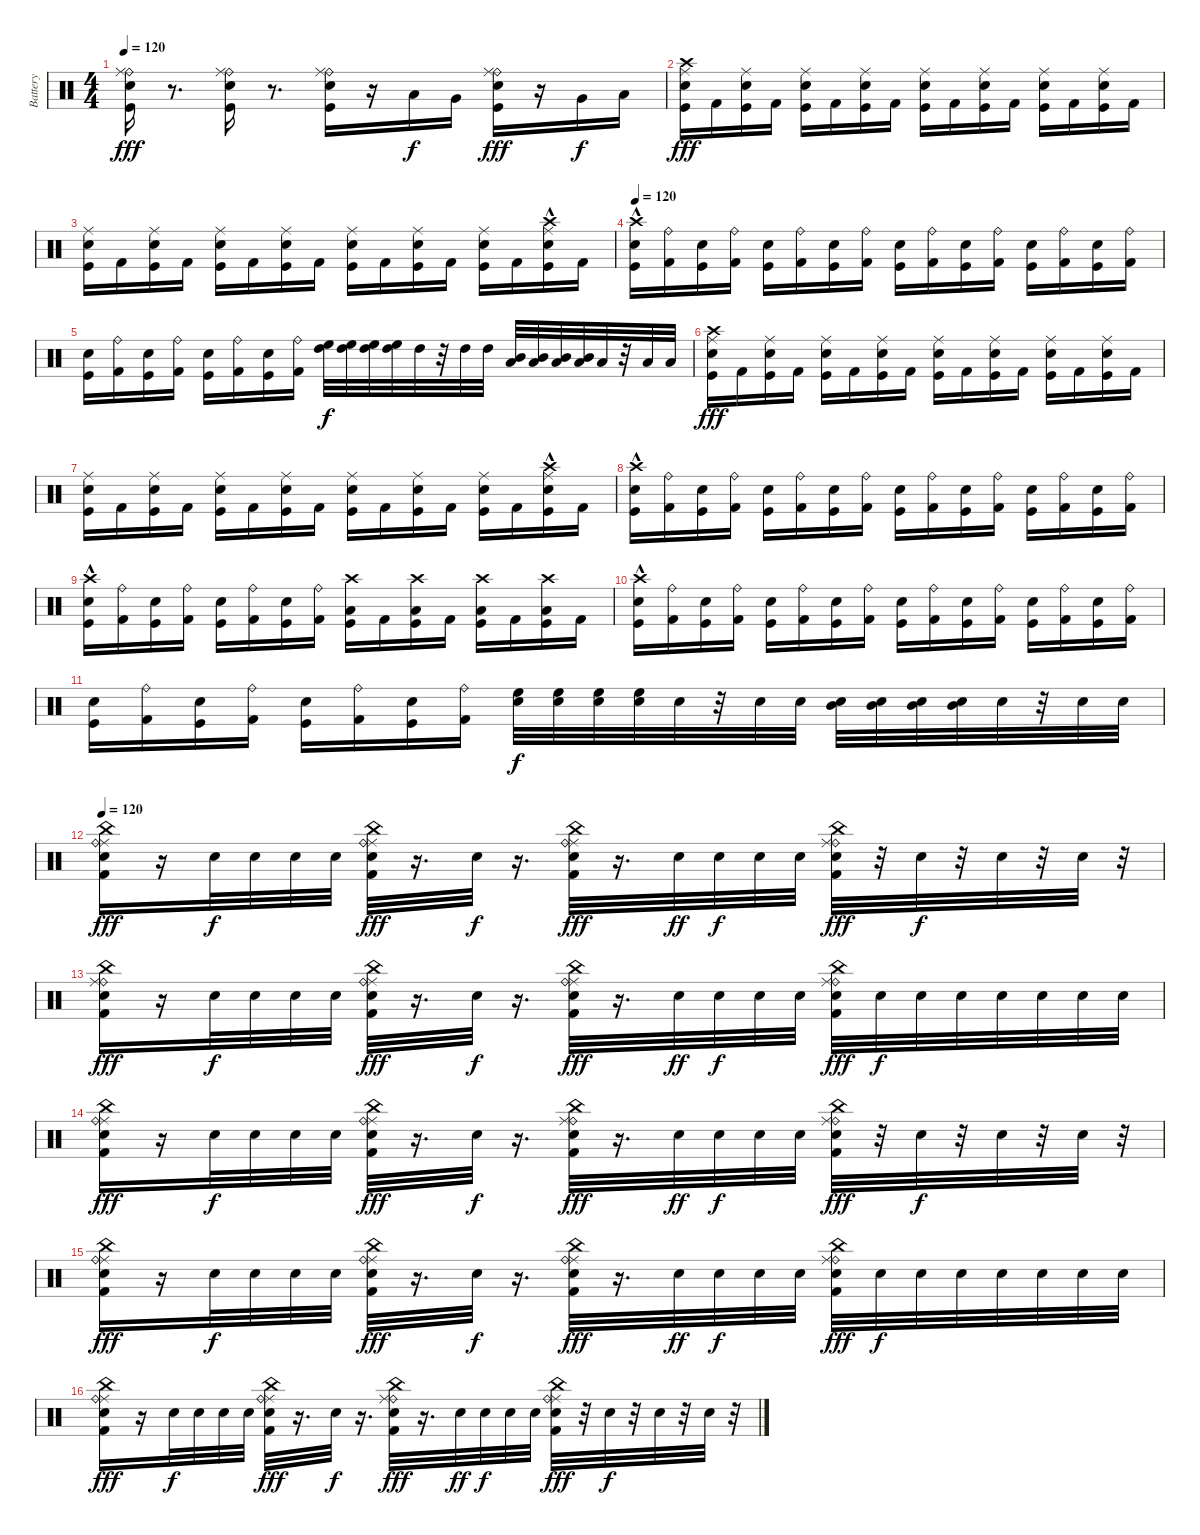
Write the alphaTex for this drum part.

\track ("Battery" "Battery") {instrument percussion}
\staff {score}
\articulation defaults
\ts (4 4)
\tempo 120
\clef neutral
\ks c
("Ride (bell)" "Ride (middle)" "Electric Snare (hit)" "Kick (hit)").16{dy fff} r.8{d} ("Electric Snare (hit)" "Ride (bell)" "Ride (middle)" "Kick (hit)").16 r.8{d} ("Ride (bell)" "Ride (middle)" "Electric Snare (hit)" "Kick (hit)").16 r.16 "Low Tom (hit)".16{dy f} "Very Low Tom (hit)".16 ("Ride (bell)" "Electric Snare (hit)" "Ride (middle)" "Kick (hit)").16{dy fff} r.16 "Very Low Tom (hit)".16{dy f} "Low Floor Tom (hit)".16 |
("Electric Snare (hit)" "Ride (middle)" "Crash high (hit)" "Kick (hit)").16{dy fff} "Kick (hit) 2".16 ("Ride (middle)" "Electric Snare (hit)" "Kick (hit)").16 "Kick (hit) 2".16 ("Ride (middle)" "Electric Snare (hit)" "Kick (hit)").16 "Kick (hit) 2".16 ("Electric Snare (hit)" "Ride (middle)" "Kick (hit)").16 "Kick (hit) 2".16 ("Ride (middle)" "Electric Snare (hit)" "Kick (hit)").16 "Kick (hit) 2".16 ("Electric Snare (hit)" "Ride (middle)" "Kick (hit)").16 "Kick (hit) 2".16 ("Ride (middle)" "Electric Snare (hit)" "Kick (hit)").16 "Kick (hit) 2".16 ("Ride (middle)" "Electric Snare (hit)" "Kick (hit)").16 "Kick (hit) 2".16 |
("Ride (middle)" "Electric Snare (hit)" "Kick (hit)").16 "Kick (hit) 2".16 ("Ride (middle)" "Electric Snare (hit)" "Kick (hit)").16 "Kick (hit) 2".16 ("Ride (middle)" "Electric Snare (hit)" "Kick (hit)").16 "Kick (hit) 2".16 ("Electric Snare (hit)" "Ride (middle)" "Kick (hit)").16 "Kick (hit) 2".16 ("Electric Snare (hit)" "Ride (middle)" "Kick (hit)").16 "Kick (hit) 2".16 ("Electric Snare (hit)" "Ride (middle)" "Kick (hit)").16 "Kick (hit) 2".16 ("Ride (middle)" "Electric Snare (hit)" "Kick (hit)").16 "Kick (hit) 2".16 ("Electric Snare (hit)" "Ride (middle)" "Crash high (hit)"{hac} "Kick (hit)").16 "Kick (hit) 2".16 |
\tempo 120
("Crash high (hit)"{hac} "Electric Snare (hit)" "Kick (hit)").16 ("Ride (bell)" "Kick (hit) 2").16 ("Electric Snare (hit)" "Kick (hit)").16 ("Ride (bell)" "Kick (hit) 2").16 ("Electric Snare (hit)" "Kick (hit)").16 ("Ride (bell)" "Kick (hit) 2").16 ("Electric Snare (hit)" "Kick (hit)").16 ("Ride (bell)" "Kick (hit) 2").16 ("Electric Snare (hit)" "Kick (hit)").16 ("Ride (bell)" "Kick (hit) 2").16 ("Electric Snare (hit)" "Kick (hit)").16 ("Ride (bell)" "Kick (hit) 2").16 ("Electric Snare (hit)" "Kick (hit)").16 ("Ride (bell)" "Kick (hit) 2").16 ("Electric Snare (hit)" "Kick (hit)").16 ("Ride (bell)" "Kick (hit) 2").16 |
("Electric Snare (hit)" "Kick (hit)").16 ("Ride (bell)" "Kick (hit) 2").16 ("Electric Snare (hit)" "Kick (hit)").16 ("Ride (bell)" "Kick (hit) 2").16 ("Electric Snare (hit)" "Kick (hit)").16 ("Ride (bell)" "Kick (hit) 2").16 ("Electric Snare (hit)" "Kick (hit)").16 ("Ride (bell)" "Kick (hit) 2").16 ("High Floor Tom (hit)" "High Tom (hit)").32{dy f} ("High Tom (hit)" "High Floor Tom (hit)").32 ("High Tom (hit)" "High Floor Tom (hit)").32 ("High Tom (hit)" "High Floor Tom (hit)").32 "High Tom (hit)".32 r.32 "High Tom (hit)".32 "High Tom (hit)".32 ("Mid Tom (hit)" "Low Tom (hit)").32 ("Mid Tom (hit)" "Low Tom (hit)").32 ("Low Tom (hit)" "Mid Tom (hit)").32 ("Mid Tom (hit)" "Low Tom (hit)").32 "Low Tom (hit)".32 r.32 "Low Tom (hit)".32 "Low Tom (hit)".32 |
("Ride (middle)" "Crash high (hit)" "Electric Snare (hit)" "Kick (hit)").16{dy fff} "Kick (hit) 2".16 ("Electric Snare (hit)" "Ride (middle)" "Kick (hit)").16 "Kick (hit) 2".16 ("Electric Snare (hit)" "Ride (middle)" "Kick (hit)").16 "Kick (hit) 2".16 ("Ride (middle)" "Electric Snare (hit)" "Kick (hit)").16 "Kick (hit) 2".16 ("Ride (middle)" "Electric Snare (hit)" "Kick (hit)").16 "Kick (hit) 2".16 ("Ride (middle)" "Electric Snare (hit)" "Kick (hit)").16 "Kick (hit) 2".16 ("Electric Snare (hit)" "Ride (middle)" "Kick (hit)").16 "Kick (hit) 2".16 ("Ride (middle)" "Electric Snare (hit)" "Kick (hit)").16 "Kick (hit) 2".16 |
("Electric Snare (hit)" "Ride (middle)" "Kick (hit)").16 "Kick (hit) 2".16 ("Electric Snare (hit)" "Ride (middle)" "Kick (hit)").16 "Kick (hit) 2".16 ("Ride (middle)" "Electric Snare (hit)" "Kick (hit)").16 "Kick (hit) 2".16 ("Ride (middle)" "Electric Snare (hit)" "Kick (hit)").16 "Kick (hit) 2".16 ("Ride (middle)" "Electric Snare (hit)" "Kick (hit)").16 "Kick (hit) 2".16 ("Electric Snare (hit)" "Ride (middle)" "Kick (hit)").16 "Kick (hit) 2".16 ("Ride (middle)" "Electric Snare (hit)" "Kick (hit)").16 "Kick (hit) 2".16 ("Ride (middle)" "Crash high (hit)"{hac} "Electric Snare (hit)" "Kick (hit)").16 "Kick (hit) 2".16 |
("Crash high (hit)"{hac} "Electric Snare (hit)" "Kick (hit)").16 ("Ride (bell)" "Kick (hit) 2").16 ("Electric Snare (hit)" "Kick (hit)").16 ("Ride (bell)" "Kick (hit) 2").16 ("Electric Snare (hit)" "Kick (hit)").16 ("Ride (bell)" "Kick (hit) 2").16 ("Electric Snare (hit)" "Kick (hit)").16 ("Ride (bell)" "Kick (hit) 2").16 ("Electric Snare (hit)" "Kick (hit)").16 ("Ride (bell)" "Kick (hit) 2").16 ("Electric Snare (hit)" "Kick (hit)").16 ("Ride (bell)" "Kick (hit) 2").16 ("Electric Snare (hit)" "Kick (hit)").16 ("Ride (bell)" "Kick (hit) 2").16 ("Electric Snare (hit)" "Kick (hit)").16 ("Ride (bell)" "Kick (hit) 2").16 |
("Electric Snare (hit)" "Crash high (hit)"{hac} "Kick (hit)").16 ("Ride (bell)" "Kick (hit) 2").16 ("Electric Snare (hit)" "Kick (hit)").16 ("Ride (bell)" "Kick (hit) 2").16 ("Electric Snare (hit)" "Kick (hit)").16 ("Ride (bell)" "Kick (hit) 2").16 ("Electric Snare (hit)" "Kick (hit)").16 ("Ride (bell)" "Kick (hit) 2").16 ("Crash high (hit)" "Low Floor Tom (hit)" "Kick (hit)").16 "Kick (hit) 2".16 ("Low Floor Tom (hit)" "Crash high (hit)" "Kick (hit)").16 "Kick (hit) 2".16 ("Crash high (hit)" "Low Floor Tom (hit)" "Kick (hit)").16 "Kick (hit) 2".16 ("Crash high (hit)" "Low Floor Tom (hit)" "Kick (hit)").16 "Kick (hit) 2".16 |
("Crash high (hit)"{hac} "Electric Snare (hit)" "Kick (hit)").16 ("Ride (bell)" "Kick (hit) 2").16 ("Electric Snare (hit)" "Kick (hit)").16 ("Ride (bell)" "Kick (hit) 2").16 ("Electric Snare (hit)" "Kick (hit)").16 ("Ride (bell)" "Kick (hit) 2").16 ("Electric Snare (hit)" "Kick (hit)").16 ("Ride (bell)" "Kick (hit) 2").16 ("Electric Snare (hit)" "Kick (hit)").16 ("Ride (bell)" "Kick (hit) 2").16 ("Electric Snare (hit)" "Kick (hit)").16 ("Ride (bell)" "Kick (hit) 2").16 ("Electric Snare (hit)" "Kick (hit)").16 ("Ride (bell)" "Kick (hit) 2").16 ("Electric Snare (hit)" "Kick (hit)").16 ("Ride (bell)" "Kick (hit) 2").16 |
("Electric Snare (hit)" "Kick (hit)").16 ("Ride (bell)" "Kick (hit) 2").16 ("Electric Snare (hit)" "Kick (hit)").16 ("Ride (bell)" "Kick (hit) 2").16 ("Electric Snare (hit)" "Kick (hit)").16 ("Ride (bell)" "Kick (hit) 2").16 ("Electric Snare (hit)" "Kick (hit)").16 ("Ride (bell)" "Kick (hit) 2").16 ("Electric Snare (hit)" "High Floor Tom (hit)").32{dy f} ("High Floor Tom (hit)" "Electric Snare (hit)").32 ("Electric Snare (hit)" "High Floor Tom (hit)").32 ("Electric Snare (hit)" "High Floor Tom (hit)").32 "Electric Snare (hit)".32 r.32 "Electric Snare (hit)".32 "Electric Snare (hit)".32 ("Electric Snare (hit)" "Mid Tom (hit)").32 ("Electric Snare (hit)" "Mid Tom (hit)").32 ("Electric Snare (hit)" "Mid Tom (hit)").32 ("Mid Tom (hit)" "Electric Snare (hit)").32 "Electric Snare (hit)".32 r.32 "Electric Snare (hit)".32 "Electric Snare (hit)".32 |
\tempo 120
("Ride (middle)" "Ride (bell)" "China (hit)" "Electric Snare (hit)" "Kick (hit) 2").16{dy fff} r.16 "Electric Snare (hit)".32{dy f} "Electric Snare (hit)".32 "Electric Snare (hit)".32 "Electric Snare (hit)".32 ("Ride (middle)" "China (hit)" "Ride (bell)" "Electric Snare (hit)" "Kick (hit) 2").32{dy fff} r.16{d} "Electric Snare (hit)".32{dy f} r.16{d} ("Electric Snare (hit)" "Ride (middle)" "Ride (bell)" "China (hit)" "Kick (hit) 2").32{dy fff} r.16{d} "Electric Snare (hit)".32{dy ff} "Electric Snare (hit)".32{dy f} "Electric Snare (hit)".32 "Electric Snare (hit)".32 ("Ride (bell)" "China (hit)" "Electric Snare (hit)" "Ride (middle)" "Kick (hit) 2").32{dy fff} r.32 "Electric Snare (hit)".32{dy f} r.32 "Electric Snare (hit)".32 r.32 "Electric Snare (hit)".32 r.32 |
("Electric Snare (hit)" "Ride (bell)" "Ride (middle)" "China (hit)" "Kick (hit) 2").16{dy fff} r.16 "Electric Snare (hit)".32{dy f} "Electric Snare (hit)".32 "Electric Snare (hit)".32 "Electric Snare (hit)".32 ("Electric Snare (hit)" "Ride (middle)" "Ride (bell)" "China (hit)" "Kick (hit) 2").32{dy fff} r.16{d} "Electric Snare (hit)".32{dy f} r.16{d} ("China (hit)" "Ride (middle)" "Ride (bell)" "Electric Snare (hit)" "Kick (hit) 2").32{dy fff} r.16{d} "Electric Snare (hit)".32{dy ff} "Electric Snare (hit)".32{dy f} "Electric Snare (hit)".32 "Electric Snare (hit)".32 ("Ride (bell)" "Electric Snare (hit)" "China (hit)" "Ride (middle)" "Kick (hit) 2").32{dy fff} "Electric Snare (hit)".32{dy f} "Electric Snare (hit)".32 "Electric Snare (hit)".32 "Electric Snare (hit)".32 "Electric Snare (hit)".32 "Electric Snare (hit)".32 "Electric Snare (hit)".32 |
("Electric Snare (hit)" "Ride (middle)" "China (hit)" "Ride (bell)" "Kick (hit) 2").16{dy fff} r.16 "Electric Snare (hit)".32{dy f} "Electric Snare (hit)".32 "Electric Snare (hit)".32 "Electric Snare (hit)".32 ("Ride (middle)" "Ride (bell)" "Electric Snare (hit)" "China (hit)" "Kick (hit) 2").32{dy fff} r.16{d} "Electric Snare (hit)".32{dy f} r.16{d} ("Electric Snare (hit)" "Ride (bell)" "Ride (middle)" "China (hit)" "Kick (hit) 2").32{dy fff} r.16{d} "Electric Snare (hit)".32{dy ff} "Electric Snare (hit)".32{dy f} "Electric Snare (hit)".32 "Electric Snare (hit)".32 ("Ride (bell)" "Ride (middle)" "China (hit)" "Electric Snare (hit)" "Kick (hit) 2").32{dy fff} r.32 "Electric Snare (hit)".32{dy f} r.32 "Electric Snare (hit)".32 r.32 "Electric Snare (hit)".32 r.32 |
("Ride (middle)" "Ride (bell)" "Electric Snare (hit)" "China (hit)" "Kick (hit) 2").16{dy fff} r.16 "Electric Snare (hit)".32{dy f} "Electric Snare (hit)".32 "Electric Snare (hit)".32 "Electric Snare (hit)".32 ("Ride (middle)" "Ride (bell)" "Electric Snare (hit)" "China (hit)" "Kick (hit) 2").32{dy fff} r.16{d} "Electric Snare (hit)".32{dy f} r.16{d} ("Electric Snare (hit)" "Ride (middle)" "Ride (bell)" "China (hit)" "Kick (hit) 2").32{dy fff} r.16{d} "Electric Snare (hit)".32{dy ff} "Electric Snare (hit)".32{dy f} "Electric Snare (hit)".32 "Electric Snare (hit)".32 ("Electric Snare (hit)" "Ride (bell)" "China (hit)" "Ride (middle)" "Kick (hit) 2").32{dy fff} "Electric Snare (hit)".32{dy f} "Electric Snare (hit)".32 "Electric Snare (hit)".32 "Electric Snare (hit)".32 "Electric Snare (hit)".32 "Electric Snare (hit)".32 "Electric Snare (hit)".32 |
("Ride (middle)" "Ride (bell)" "China (hit)" "Electric Snare (hit)" "Kick (hit) 2").16{dy fff} r.16 "Electric Snare (hit)".32{dy f} "Electric Snare (hit)".32 "Electric Snare (hit)".32 "Electric Snare (hit)".32 ("China (hit)" "Ride (middle)" "Ride (bell)" "Electric Snare (hit)" "Kick (hit) 2").32{dy fff} r.16{d} "Electric Snare (hit)".32{dy f} r.16{d} ("Ride (bell)" "China (hit)" "Ride (middle)" "Electric Snare (hit)" "Kick (hit) 2").32{dy fff} r.16{d} "Electric Snare (hit)".32{dy ff} "Electric Snare (hit)".32{dy f} "Electric Snare (hit)".32 "Electric Snare (hit)".32 ("Ride (middle)" "Electric Snare (hit)" "Ride (bell)" "China (hit)" "Kick (hit) 2").32{dy fff} r.32 "Electric Snare (hit)".32{dy f} r.32 "Electric Snare (hit)".32 r.32 "Electric Snare (hit)".32 r.32
